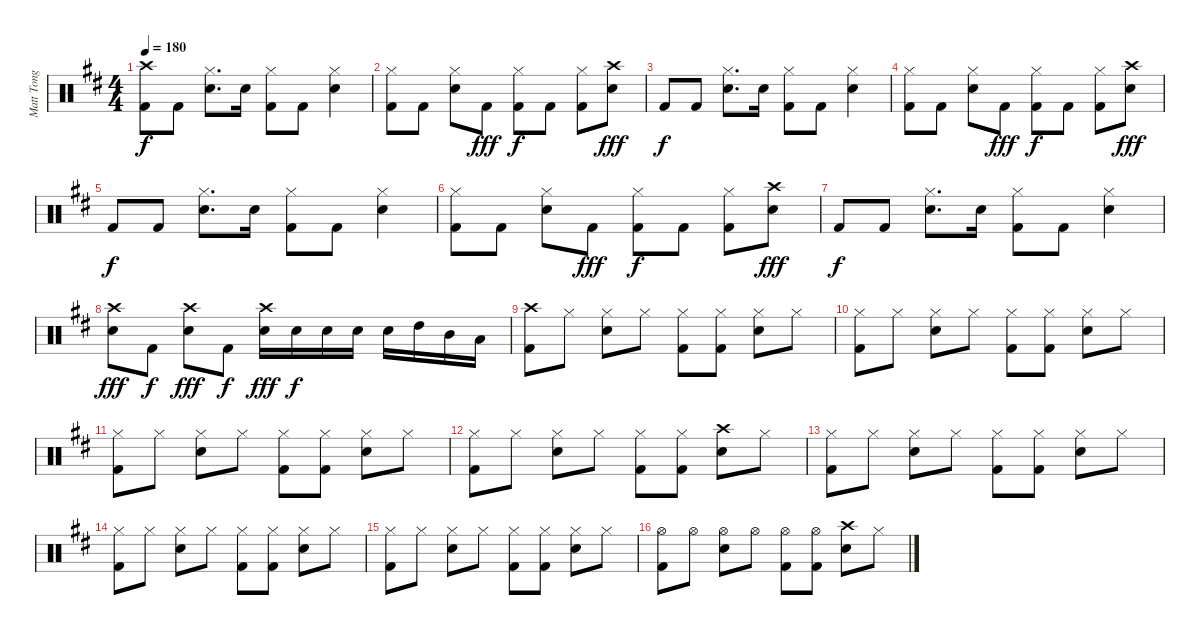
\track ("Matt Tong" "Matt Tong") {instrument percussion}
\staff {score}
\articulation defaults
\ts (4 4)
\tempo 180
\clef neutral
\ks d
("Crash high (hit)" "Kick (hit) 2").8{dy f} "Kick (hit) 2".8 ("Hi-Hat (closed)" "Electric Snare (hit)").8{d} "Electric Snare (hit)".16 ("Hi-Hat (closed)" "Kick (hit) 2").8 "Kick (hit) 2".8 ("Hi-Hat (closed)" "Electric Snare (hit)").4 |
("Hi-Hat (closed)" "Kick (hit) 2").8 "Kick (hit) 2".8 ("Hi-Hat (closed)" "Electric Snare (hit)").8 "Kick (hit) 2".8{dy fff} ("Hi-Hat (closed)" "Kick (hit) 2").8{dy f} "Kick (hit) 2".8 ("Hi-Hat (closed)" "Kick (hit) 2").8 ("Crash high (hit)" "Electric Snare (hit)").8{dy fff} |
"Kick (hit) 2".8{dy f} "Kick (hit) 2".8 ("Hi-Hat (closed)" "Electric Snare (hit)").8{d} "Electric Snare (hit)".16 ("Hi-Hat (closed)" "Kick (hit) 2").8 "Kick (hit) 2".8 ("Hi-Hat (closed)" "Electric Snare (hit)").4 |
("Hi-Hat (closed)" "Kick (hit) 2").8 "Kick (hit) 2".8 ("Hi-Hat (closed)" "Electric Snare (hit)").8 "Kick (hit) 2".8{dy fff} ("Hi-Hat (closed)" "Kick (hit) 2").8{dy f} "Kick (hit) 2".8 ("Hi-Hat (closed)" "Kick (hit) 2").8 ("Crash high (hit)" "Electric Snare (hit)").8{dy fff} |
"Kick (hit) 2".8{dy f} "Kick (hit) 2".8 ("Hi-Hat (closed)" "Electric Snare (hit)").8{d} "Electric Snare (hit)".16 ("Hi-Hat (closed)" "Kick (hit) 2").8 "Kick (hit) 2".8 ("Hi-Hat (closed)" "Electric Snare (hit)").4 |
("Hi-Hat (closed)" "Kick (hit) 2").8 "Kick (hit) 2".8 ("Hi-Hat (closed)" "Electric Snare (hit)").8 "Kick (hit) 2".8{dy fff} ("Hi-Hat (closed)" "Kick (hit) 2").8{dy f} "Kick (hit) 2".8 ("Hi-Hat (closed)" "Kick (hit) 2").8 ("Crash high (hit)" "Electric Snare (hit)").8{dy fff} |
"Kick (hit) 2".8{dy f} "Kick (hit) 2".8 ("Hi-Hat (closed)" "Electric Snare (hit)").8{d} "Electric Snare (hit)".16 ("Hi-Hat (closed)" "Kick (hit) 2").8 "Kick (hit) 2".8 ("Hi-Hat (closed)" "Electric Snare (hit)").4 |
("Crash high (hit)" "Electric Snare (hit)").8{dy fff} "Kick (hit) 2".8{dy f} ("Crash high (hit)" "Electric Snare (hit)").8{dy fff} "Kick (hit) 2".8{dy f} ("Crash high (hit)" "Electric Snare (hit)").16{dy fff} "Electric Snare (hit)".16{dy f} "Electric Snare (hit)".16 "Electric Snare (hit)".16 "Electric Snare (hit)".16 "High Tom (hit)".16 "Mid Tom (hit)".16 "Low Tom (hit)".16 |
("Crash high (hit)" "Kick (hit) 2").8 "Hi-Hat (closed)".8 ("Hi-Hat (closed)" "Electric Snare (hit)").8 "Hi-Hat (closed)".8 ("Hi-Hat (closed)" "Kick (hit) 2").8 ("Hi-Hat (closed)" "Kick (hit) 2").8 ("Hi-Hat (closed)" "Electric Snare (hit)").8 "Hi-Hat (closed)".8 |
("Hi-Hat (closed)" "Kick (hit) 2").8 "Hi-Hat (closed)".8 ("Hi-Hat (closed)" "Electric Snare (hit)").8 "Hi-Hat (closed)".8 ("Hi-Hat (closed)" "Kick (hit) 2").8 ("Hi-Hat (closed)" "Kick (hit) 2").8 ("Hi-Hat (closed)" "Electric Snare (hit)").8 "Hi-Hat (closed)".8 |
("Hi-Hat (closed)" "Kick (hit) 2").8 "Hi-Hat (closed)".8 ("Hi-Hat (closed)" "Electric Snare (hit)").8 "Hi-Hat (closed)".8 ("Hi-Hat (closed)" "Kick (hit) 2").8 ("Hi-Hat (closed)" "Kick (hit) 2").8 ("Hi-Hat (closed)" "Electric Snare (hit)").8 "Hi-Hat (closed)".8 |
("Hi-Hat (closed)" "Kick (hit) 2").8 "Hi-Hat (closed)".8 ("Hi-Hat (closed)" "Electric Snare (hit)").8 "Hi-Hat (closed)".8 ("Hi-Hat (closed)" "Kick (hit) 2").8 ("Hi-Hat (closed)" "Kick (hit) 2").8 ("Crash high (hit)" "Electric Snare (hit)").8 "Hi-Hat (closed)".8 |
("Hi-Hat (closed)" "Kick (hit) 2").8 "Hi-Hat (closed)".8 ("Hi-Hat (closed)" "Electric Snare (hit)").8 "Hi-Hat (closed)".8 ("Hi-Hat (closed)" "Kick (hit) 2").8 ("Hi-Hat (closed)" "Kick (hit) 2").8 ("Hi-Hat (closed)" "Electric Snare (hit)").8 "Hi-Hat (closed)".8 |
("Hi-Hat (closed)" "Kick (hit) 2").8 "Hi-Hat (closed)".8 ("Hi-Hat (closed)" "Electric Snare (hit)").8 "Hi-Hat (closed)".8 ("Hi-Hat (closed)" "Kick (hit) 2").8 ("Hi-Hat (closed)" "Kick (hit) 2").8 ("Hi-Hat (closed)" "Electric Snare (hit)").8 "Hi-Hat (closed)".8 |
("Hi-Hat (closed)" "Kick (hit) 2").8 "Hi-Hat (closed)".8 ("Hi-Hat (closed)" "Electric Snare (hit)").8 "Hi-Hat (closed)".8 ("Hi-Hat (closed)" "Kick (hit) 2").8 ("Hi-Hat (closed)" "Kick (hit) 2").8 ("Hi-Hat (closed)" "Electric Snare (hit)").8 "Hi-Hat (closed)".8 |
("Hi-Hat (open)" "Kick (hit) 2").8 "Hi-Hat (open)".8 ("Hi-Hat (open)" "Electric Snare (hit)").8 "Hi-Hat (open)".8 ("Hi-Hat (open)" "Kick (hit) 2").8 ("Hi-Hat (open)" "Kick (hit) 2").8 ("Crash high (hit)" "Electric Snare (hit)").8 "Hi-Hat (closed)".8
